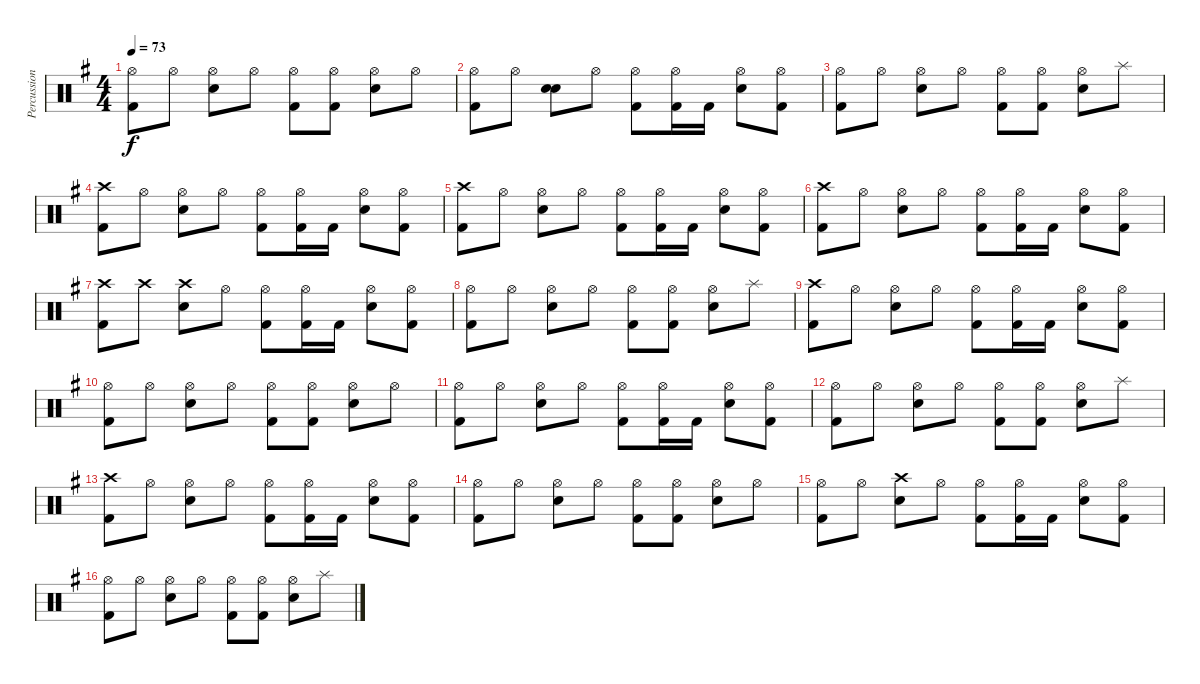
\track ("Percussions" "Percussion") {instrument percussion}
\staff {score}
\articulation defaults
\ts (4 4)
\tempo 73
\clef neutral
\ks g
("Hi-Hat (open)" "Kick (hit) 2").8{dy f} "Hi-Hat (open)".8 ("Hi-Hat (open)" "Snare (hit) 2").8 "Hi-Hat (open)".8 ("Hi-Hat (open)" "Kick (hit) 2").8 ("Hi-Hat (open)" "Kick (hit) 2").8 ("Hi-Hat (open)" "Snare (hit) 2").8 "Hi-Hat (open)".8 |
("Hi-Hat (open)" "Kick (hit) 2").8 "Hi-Hat (open)".8 ("Snare (hit)" "Snare (hit) 2").8 "Hi-Hat (open)".8 ("Hi-Hat (open)" "Kick (hit) 2").8 ("Hi-Hat (open)" "Kick (hit) 2").16 "Kick (hit) 2".16 ("Hi-Hat (open)" "Snare (hit) 2").8 ("Hi-Hat (open)" "Kick (hit) 2").8 |
("Hi-Hat (open)" "Kick (hit) 2").8 "Hi-Hat (open)".8 ("Hi-Hat (open)" "Snare (hit) 2").8 "Hi-Hat (open)".8 ("Hi-Hat (open)" "Kick (hit) 2").8 ("Hi-Hat (open)" "Kick (hit) 2").8 ("Hi-Hat (open)" "Snare (hit) 2").8 "Splash (hit)".8 |
("Crash high (hit)" "Kick (hit) 2").8 "Hi-Hat (open)".8 ("Hi-Hat (open)" "Snare (hit) 2").8 "Hi-Hat (open)".8 ("Hi-Hat (open)" "Kick (hit) 2").8 ("Hi-Hat (open)" "Kick (hit) 2").16 "Kick (hit) 2".16 ("Hi-Hat (open)" "Snare (hit) 2").8 ("Hi-Hat (open)" "Kick (hit) 2").8 |
("Crash high (hit)" "Kick (hit) 2").8 "Hi-Hat (open)".8 ("Hi-Hat (open)" "Snare (hit) 2").8 "Hi-Hat (open)".8 ("Hi-Hat (open)" "Kick (hit) 2").8 ("Hi-Hat (open)" "Kick (hit) 2").16 "Kick (hit) 2".16 ("Hi-Hat (open)" "Snare (hit) 2").8 ("Hi-Hat (open)" "Kick (hit) 2").8 |
("Crash high (hit)" "Kick (hit) 2").8 "Hi-Hat (open)".8 ("Hi-Hat (open)" "Snare (hit) 2").8 "Hi-Hat (open)".8 ("Hi-Hat (open)" "Kick (hit) 2").8 ("Hi-Hat (open)" "Kick (hit) 2").16 "Kick (hit) 2".16 ("Hi-Hat (open)" "Snare (hit) 2").8 ("Hi-Hat (open)" "Kick (hit) 2").8 |
("Crash high (hit)" "Kick (hit) 2").8 "Crash high (hit)".8 ("Crash high (hit)" "Snare (hit) 2").8 "Hi-Hat (open)".8 ("Hi-Hat (open)" "Kick (hit) 2").8 ("Hi-Hat (open)" "Kick (hit) 2").16 "Kick (hit) 2".16 ("Hi-Hat (open)" "Snare (hit) 2").8 ("Hi-Hat (open)" "Kick (hit) 2").8 |
("Hi-Hat (open)" "Kick (hit) 2").8 "Hi-Hat (open)".8 ("Hi-Hat (open)" "Snare (hit) 2").8 "Hi-Hat (open)".8 ("Hi-Hat (open)" "Kick (hit) 2").8 ("Hi-Hat (open)" "Kick (hit) 2").8 ("Hi-Hat (open)" "Snare (hit) 2").8 "Splash (hit)".8 |
("Crash high (hit)" "Kick (hit) 2").8 "Hi-Hat (open)".8 ("Hi-Hat (open)" "Snare (hit) 2").8 "Hi-Hat (open)".8 ("Hi-Hat (open)" "Kick (hit) 2").8 ("Hi-Hat (open)" "Kick (hit) 2").16 "Kick (hit) 2".16 ("Hi-Hat (open)" "Snare (hit) 2").8 ("Hi-Hat (open)" "Kick (hit) 2").8 |
("Hi-Hat (open)" "Kick (hit) 2").8 "Hi-Hat (open)".8 ("Hi-Hat (open)" "Snare (hit) 2").8 "Hi-Hat (open)".8 ("Hi-Hat (open)" "Kick (hit) 2").8 ("Hi-Hat (open)" "Kick (hit) 2").8 ("Hi-Hat (open)" "Snare (hit) 2").8 "Hi-Hat (open)".8 |
("Hi-Hat (open)" "Kick (hit) 2").8 "Hi-Hat (open)".8 ("Hi-Hat (open)" "Snare (hit) 2").8 "Hi-Hat (open)".8 ("Hi-Hat (open)" "Kick (hit) 2").8 ("Hi-Hat (open)" "Kick (hit) 2").16 "Kick (hit) 2".16 ("Hi-Hat (open)" "Snare (hit) 2").8 ("Hi-Hat (open)" "Kick (hit) 2").8 |
("Hi-Hat (open)" "Kick (hit) 2").8 "Hi-Hat (open)".8 ("Hi-Hat (open)" "Snare (hit) 2").8 "Hi-Hat (open)".8 ("Hi-Hat (open)" "Kick (hit) 2").8 ("Hi-Hat (open)" "Kick (hit) 2").8 ("Hi-Hat (open)" "Snare (hit) 2").8 "Splash (hit)".8 |
("Crash high (hit)" "Kick (hit) 2").8 "Hi-Hat (open)".8 ("Hi-Hat (open)" "Snare (hit) 2").8 "Hi-Hat (open)".8 ("Hi-Hat (open)" "Kick (hit) 2").8 ("Hi-Hat (open)" "Kick (hit) 2").16 "Kick (hit) 2".16 ("Hi-Hat (open)" "Snare (hit) 2").8 ("Hi-Hat (open)" "Kick (hit) 2").8 |
("Hi-Hat (open)" "Kick (hit) 2").8 "Hi-Hat (open)".8 ("Hi-Hat (open)" "Snare (hit) 2").8 "Hi-Hat (open)".8 ("Hi-Hat (open)" "Kick (hit) 2").8 ("Hi-Hat (open)" "Kick (hit) 2").8 ("Hi-Hat (open)" "Snare (hit) 2").8 "Hi-Hat (open)".8 |
("Hi-Hat (open)" "Kick (hit) 2").8 "Hi-Hat (open)".8 ("Crash high (hit)" "Snare (hit) 2").8 "Hi-Hat (open)".8 ("Hi-Hat (open)" "Kick (hit) 2").8 ("Hi-Hat (open)" "Kick (hit) 2").16 "Kick (hit) 2".16 ("Hi-Hat (open)" "Snare (hit) 2").8 ("Hi-Hat (open)" "Kick (hit) 2").8 |
("Hi-Hat (open)" "Kick (hit) 2").8 "Hi-Hat (open)".8 ("Hi-Hat (open)" "Snare (hit) 2").8 "Hi-Hat (open)".8 ("Hi-Hat (open)" "Kick (hit) 2").8 ("Hi-Hat (open)" "Kick (hit) 2").8 ("Hi-Hat (open)" "Snare (hit) 2").8 "Splash (hit)".8
